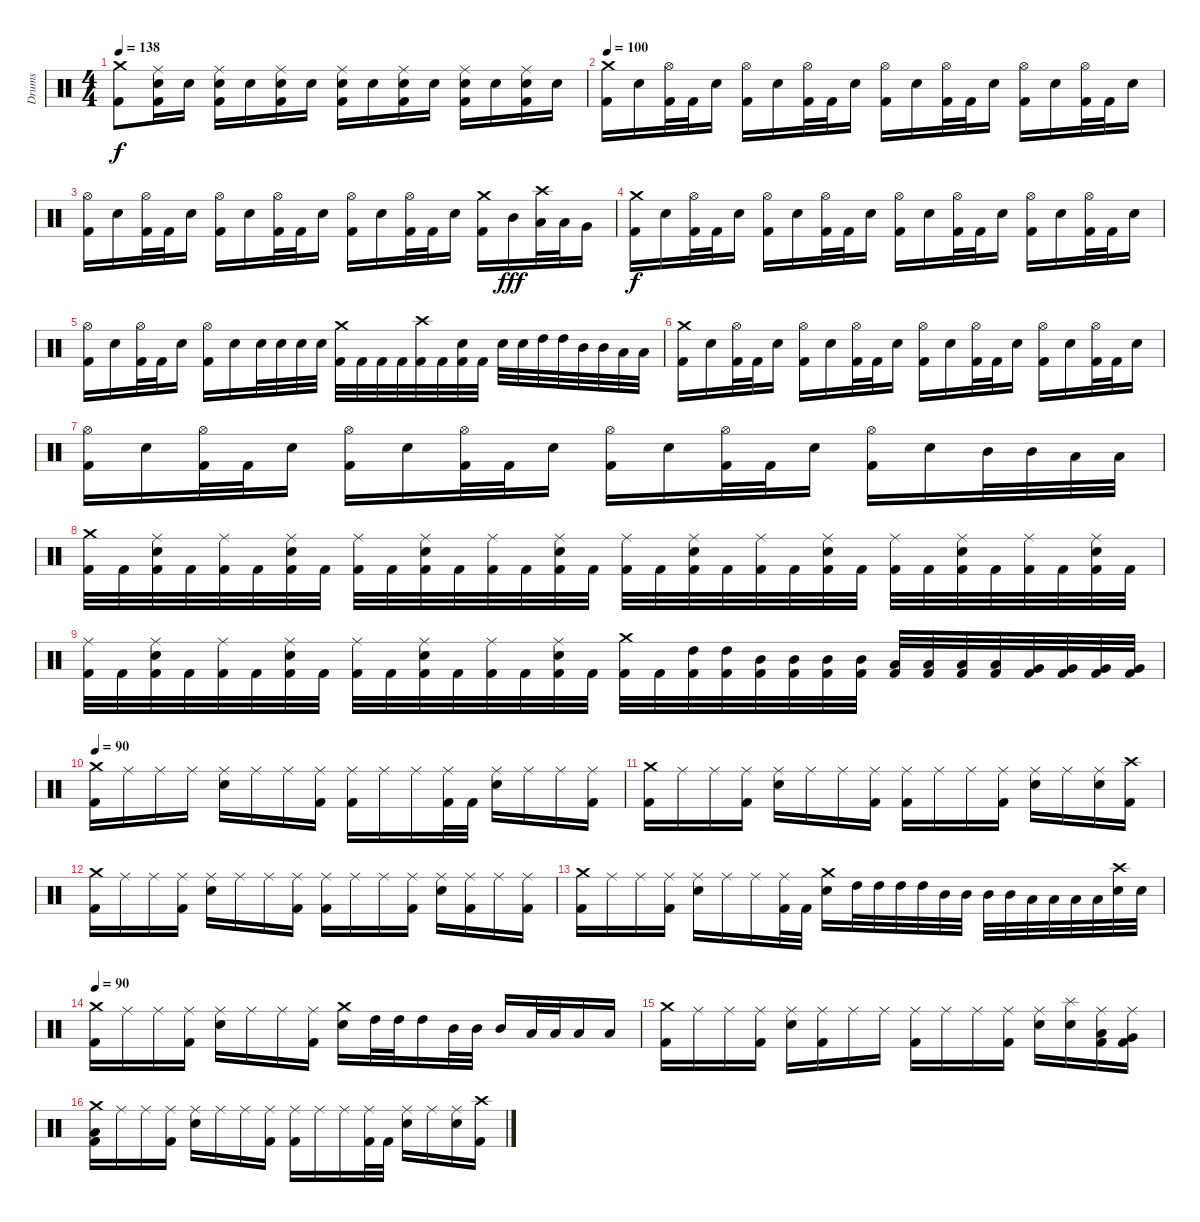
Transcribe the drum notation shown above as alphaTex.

\track ("Drums" "Drums") {instrument percussion}
\staff {score}
\articulation defaults
\ts (4 4)
\tempo 138
\clef neutral
\ks c
("Kick (hit) 2" "Crash medium (hit)").8{dy f} ("Kick (hit) 2" "Electric Snare (hit)" "Ride (middle)").16 "Electric Snare (hit)".16 ("Kick (hit) 2" "Electric Snare (hit)" "Ride (middle)").16 "Electric Snare (hit)".16 ("Kick (hit) 2" "Electric Snare (hit)" "Ride (middle)").16 "Electric Snare (hit)".16 ("Kick (hit) 2" "Electric Snare (hit)" "Ride (middle)").16 "Electric Snare (hit)".16 ("Kick (hit) 2" "Electric Snare (hit)" "Ride (middle)").16 "Electric Snare (hit)".16 ("Kick (hit) 2" "Electric Snare (hit)" "Ride (middle)").16 "Electric Snare (hit)".16 ("Kick (hit) 2" "Electric Snare (hit)" "Ride (middle)").16 "Electric Snare (hit)".16 |
\tempo 100
("Kick (hit) 2" "Crash medium (hit)").16 "Electric Snare (hit)".16 ("Kick (hit) 2" "Hi-Hat (open)").32 "Kick (hit) 2".32 "Electric Snare (hit)".16 ("Kick (hit) 2" "Hi-Hat (open)").16 "Electric Snare (hit)".16 ("Kick (hit) 2" "Hi-Hat (open)").32 "Kick (hit) 2".32 "Electric Snare (hit)".16 ("Kick (hit) 2" "Hi-Hat (open)").16 "Electric Snare (hit)".16 ("Kick (hit) 2" "Hi-Hat (open)").32 "Kick (hit) 2".32 "Electric Snare (hit)".16 ("Kick (hit) 2" "Hi-Hat (open)").16 "Electric Snare (hit)".16 ("Kick (hit) 2" "Hi-Hat (open)").32 "Kick (hit) 2".32 "Electric Snare (hit)".16 |
("Kick (hit) 2" "Hi-Hat (open)").16 "Electric Snare (hit)".16 ("Kick (hit) 2" "Hi-Hat (open)").32 "Kick (hit) 2".32 "Electric Snare (hit)".16 ("Kick (hit) 2" "Hi-Hat (open)").16 "Electric Snare (hit)".16 ("Kick (hit) 2" "Hi-Hat (open)").32 "Kick (hit) 2".32 "Electric Snare (hit)".16 ("Kick (hit) 2" "Hi-Hat (open)").16 "Electric Snare (hit)".16 ("Kick (hit) 2" "Hi-Hat (open)").32 "Kick (hit) 2".32 "Electric Snare (hit)".16 ("Kick (hit) 2" "Crash medium (hit)").16 "Mid Tom (hit)".16{dy fff} ("Low Tom (hit)" "Crash high (hit)").32 "Low Tom (hit)".32 "Very Low Tom (hit)".16 |
("Kick (hit) 2" "Crash medium (hit)").16{dy f} "Electric Snare (hit)".16 ("Kick (hit) 2" "Hi-Hat (open)").32 "Kick (hit) 2".32 "Electric Snare (hit)".16 ("Kick (hit) 2" "Hi-Hat (open)").16 "Electric Snare (hit)".16 ("Kick (hit) 2" "Hi-Hat (open)").32 "Kick (hit) 2".32 "Electric Snare (hit)".16 ("Kick (hit) 2" "Hi-Hat (open)").16 "Electric Snare (hit)".16 ("Kick (hit) 2" "Hi-Hat (open)").32 "Kick (hit) 2".32 "Electric Snare (hit)".16 ("Kick (hit) 2" "Hi-Hat (open)").16 "Electric Snare (hit)".16 ("Kick (hit) 2" "Hi-Hat (open)").32 "Kick (hit) 2".32 "Electric Snare (hit)".16 |
("Kick (hit) 2" "Hi-Hat (open)").16 "Electric Snare (hit)".16 ("Kick (hit) 2" "Hi-Hat (open)").32 "Kick (hit) 2".32 "Electric Snare (hit)".16 ("Kick (hit) 2" "Hi-Hat (open)").16 "Electric Snare (hit)".16 "Electric Snare (hit)".32 "Electric Snare (hit)".32 "Electric Snare (hit)".32 "Electric Snare (hit)".32 ("Kick (hit) 2" "Crash medium (hit)").32 "Kick (hit) 2".32 "Kick (hit) 2".32 "Kick (hit) 2".32 ("Kick (hit) 2" "Crash high (hit)").32 "Kick (hit) 2".32 ("Kick (hit) 2" "Electric Snare (hit)").32 "Kick (hit) 2".32 "Electric Snare (hit)".32 "Electric Snare (hit)".32 "High Tom (hit)".32 "High Tom (hit)".32 "Mid Tom (hit)".32 "Mid Tom (hit)".32 "Low Tom (hit)".32 "Low Tom (hit)".32 |
("Kick (hit) 2" "Crash medium (hit)").16 "Electric Snare (hit)".16 ("Kick (hit) 2" "Hi-Hat (open)").32 "Kick (hit) 2".32 "Electric Snare (hit)".16 ("Kick (hit) 2" "Hi-Hat (open)").16 "Electric Snare (hit)".16 ("Kick (hit) 2" "Hi-Hat (open)").32 "Kick (hit) 2".32 "Electric Snare (hit)".16 ("Kick (hit) 2" "Hi-Hat (open)").16 "Electric Snare (hit)".16 ("Kick (hit) 2" "Hi-Hat (open)").32 "Kick (hit) 2".32 "Electric Snare (hit)".16 ("Kick (hit) 2" "Hi-Hat (open)").16 "Electric Snare (hit)".16 ("Kick (hit) 2" "Hi-Hat (open)").32 "Kick (hit) 2".32 "Electric Snare (hit)".16 |
("Kick (hit) 2" "Hi-Hat (open)").16 "Electric Snare (hit)".16 ("Kick (hit) 2" "Hi-Hat (open)").32 "Kick (hit) 2".32 "Electric Snare (hit)".16 ("Kick (hit) 2" "Hi-Hat (open)").16 "Electric Snare (hit)".16 ("Kick (hit) 2" "Hi-Hat (open)").32 "Kick (hit) 2".32 "Electric Snare (hit)".16 ("Kick (hit) 2" "Hi-Hat (open)").16 "Electric Snare (hit)".16 ("Kick (hit) 2" "Hi-Hat (open)").32 "Kick (hit) 2".32 "Electric Snare (hit)".16 ("Kick (hit) 2" "Hi-Hat (open)").16 "Electric Snare (hit)".16 "Mid Tom (hit)".32 "Mid Tom (hit)".32 "Low Tom (hit)".32 "Low Tom (hit)".32 |
("Kick (hit) 2" "Crash medium (hit)").32 "Kick (hit) 2".32 ("Kick (hit) 2" "Electric Snare (hit)" "Ride (middle)").32 "Kick (hit) 2".32 ("Kick (hit) 2" "Ride (middle)").32 "Kick (hit) 2".32 ("Kick (hit) 2" "Electric Snare (hit)" "Ride (middle)").32 "Kick (hit) 2".32 ("Kick (hit) 2" "Ride (middle)").32 "Kick (hit) 2".32 ("Kick (hit) 2" "Electric Snare (hit)" "Ride (middle)").32 "Kick (hit) 2".32 ("Kick (hit) 2" "Ride (middle)").32 "Kick (hit) 2".32 ("Kick (hit) 2" "Electric Snare (hit)" "Ride (middle)").32 "Kick (hit) 2".32 ("Kick (hit) 2" "Ride (middle)").32 "Kick (hit) 2".32 ("Kick (hit) 2" "Electric Snare (hit)" "Ride (middle)").32 "Kick (hit) 2".32 ("Kick (hit) 2" "Ride (middle)").32 "Kick (hit) 2".32 ("Kick (hit) 2" "Electric Snare (hit)" "Ride (middle)").32 "Kick (hit) 2".32 ("Kick (hit) 2" "Ride (middle)").32 "Kick (hit) 2".32 ("Kick (hit) 2" "Electric Snare (hit)" "Ride (middle)").32 "Kick (hit) 2".32 ("Kick (hit) 2" "Ride (middle)").32 "Kick (hit) 2".32 ("Kick (hit) 2" "Electric Snare (hit)" "Ride (middle)").32 "Kick (hit) 2".32 |
("Kick (hit) 2" "Ride (middle)").32 "Kick (hit) 2".32 ("Kick (hit) 2" "Electric Snare (hit)" "Ride (middle)").32 "Kick (hit) 2".32 ("Kick (hit) 2" "Ride (middle)").32 "Kick (hit) 2".32 ("Kick (hit) 2" "Electric Snare (hit)" "Ride (middle)").32 "Kick (hit) 2".32 ("Kick (hit) 2" "Ride (middle)").32 "Kick (hit) 2".32 ("Kick (hit) 2" "Electric Snare (hit)" "Ride (middle)").32 "Kick (hit) 2".32 ("Kick (hit) 2" "Ride (middle)").32 "Kick (hit) 2".32 ("Kick (hit) 2" "Electric Snare (hit)" "Ride (middle)").32 "Kick (hit) 2".32 ("Kick (hit) 2" "Crash medium (hit)").32 "Kick (hit) 2".32 ("Kick (hit) 2" "High Tom (hit)").32 ("Kick (hit) 2" "High Tom (hit)").32 ("Kick (hit) 2" "Mid Tom (hit)").32 ("Kick (hit) 2" "Mid Tom (hit)").32 ("Kick (hit) 2" "Mid Tom (hit)").32 ("Kick (hit) 2" "Mid Tom (hit)").32 ("Kick (hit) 2" "Low Tom (hit)").32 ("Kick (hit) 2" "Low Tom (hit)").32 ("Kick (hit) 2" "Low Tom (hit)").32 ("Kick (hit) 2" "Low Tom (hit)").32 ("Kick (hit) 2" "Very Low Tom (hit)").32 ("Kick (hit) 2" "Very Low Tom (hit)").32 ("Kick (hit) 2" "Very Low Tom (hit)").32 ("Kick (hit) 2" "Very Low Tom (hit)").32 |
\tempo 90
("Kick (hit) 2" "Crash medium (hit)").16 "Ride (middle)".16 "Ride (middle)".16 "Ride (middle)".16 ("Electric Snare (hit)" "Ride (middle)").16 "Ride (middle)".16 "Ride (middle)".16 ("Kick (hit) 2" "Ride (middle)").16 ("Kick (hit) 2" "Ride (middle)").16 "Ride (middle)".16 "Ride (middle)".16 ("Kick (hit) 2" "Ride (middle)").32 "Kick (hit) 2".32 ("Electric Snare (hit)" "Ride (middle)").16 "Ride (middle)".16 "Ride (middle)".16 ("Kick (hit) 2" "Ride (middle)").16 |
("Kick (hit) 2" "Crash medium (hit)").16 "Ride (middle)".16 "Ride (middle)".16 ("Kick (hit) 2" "Ride (middle)").16 ("Electric Snare (hit)" "Ride (middle)").16 "Ride (middle)".16 "Ride (middle)".16 ("Kick (hit) 2" "Ride (middle)").16 ("Kick (hit) 2" "Ride (middle)").16 "Ride (middle)".16 "Ride (middle)".16 ("Kick (hit) 2" "Ride (middle)").16 ("Electric Snare (hit)" "Ride (middle)").16 "Ride (middle)".16 ("Electric Snare (hit)" "Ride (middle)").16 ("Kick (hit) 2" "Crash high (hit)").16 |
("Kick (hit) 2" "Crash medium (hit)").16 "Ride (middle)".16 "Ride (middle)".16 ("Kick (hit) 2" "Ride (middle)").16 ("Electric Snare (hit)" "Ride (middle)").16 "Ride (middle)".16 "Ride (middle)".16 ("Kick (hit) 2" "Ride (middle)").16 ("Kick (hit) 2" "Ride (middle)").16 "Ride (middle)".16 "Ride (middle)".16 ("Kick (hit) 2" "Ride (middle)").16 ("Electric Snare (hit)" "Ride (middle)").16 ("Kick (hit) 2" "Ride (middle)").16 "Ride (middle)".16 ("Kick (hit) 2" "Ride (middle)").16 |
("Kick (hit) 2" "Crash medium (hit)").16 "Ride (middle)".16 "Ride (middle)".16 ("Kick (hit) 2" "Ride (middle)").16 ("Electric Snare (hit)" "Ride (middle)").16 "Ride (middle)".16 "Ride (middle)".16 ("Kick (hit) 2" "Ride (middle)").32 "Kick (hit) 2".32 ("Electric Snare (hit)" "Crash medium (hit)").16 "High Tom (hit)".32 "High Tom (hit)".32 "High Tom (hit)".32 "High Tom (hit)".32 "Mid Tom (hit)".32 "Mid Tom (hit)".32 "Mid Tom (hit)".32 "Mid Tom (hit)".32 "Low Tom (hit)".32 "Low Tom (hit)".32 "Low Tom (hit)".32 "Low Tom (hit)".32 ("Electric Snare (hit)" "Crash high (hit)").32 "Electric Snare (hit)".32 |
\tempo 90
("Kick (hit) 2" "Crash medium (hit)").16 "Ride (middle)".16 "Ride (middle)".16 ("Kick (hit) 2" "Ride (middle)").16 ("Electric Snare (hit)" "Ride (middle)").16 "Ride (middle)".16 "Ride (middle)".16 ("Kick (hit) 2" "Ride (middle)").16 ("Electric Snare (hit)" "Crash medium (hit)").16 "High Tom (hit)".32 "High Tom (hit)".32 "High Tom (hit)".16 "Mid Tom (hit)".32 "Mid Tom (hit)".32 "Mid Tom (hit)".16 "Low Tom (hit)".32 "Low Tom (hit)".32 "Low Tom (hit)".16 "Low Tom (hit)".16 |
("Kick (hit) 2" "Crash medium (hit)").16 "Ride (middle)".16 "Ride (middle)".16 ("Kick (hit) 2" "Ride (middle)").16 ("Electric Snare (hit)" "Ride (middle)").16 ("Kick (hit) 2" "Ride (middle)").16 "Ride (middle)".16 "Ride (middle)".16 ("Kick (hit) 2" "Ride (middle)").16 "Ride (middle)".16 "Ride (middle)".16 ("Kick (hit) 2" "Ride (middle)").16 ("Electric Snare (hit)" "Ride (middle)").16 ("Electric Snare (hit)" "Splash (hit)").16 ("Kick (hit) 2" "Low Tom (hit)" "Ride (middle)").16 ("Kick (hit) 2" "Very Low Tom (hit)" "Ride (middle)").16 |
("Kick (hit) 2" "Low Floor Tom (hit)" "Crash medium (hit)").16 "Ride (middle)".16 "Ride (middle)".16 ("Kick (hit) 2" "Ride (middle)").16 ("Electric Snare (hit)" "Ride (middle)").16 "Ride (middle)".16 "Ride (middle)".16 ("Kick (hit) 2" "Ride (middle)").16 ("Kick (hit) 2" "Ride (middle)").16 "Ride (middle)".16 "Ride (middle)".16 ("Kick (hit) 2" "Ride (middle)").32 "Kick (hit) 2".32 ("Electric Snare (hit)" "Ride (middle)").16 "Ride (middle)".16 ("Electric Snare (hit)" "Ride (middle)").16 ("Kick (hit) 2" "Crash high (hit)").16
